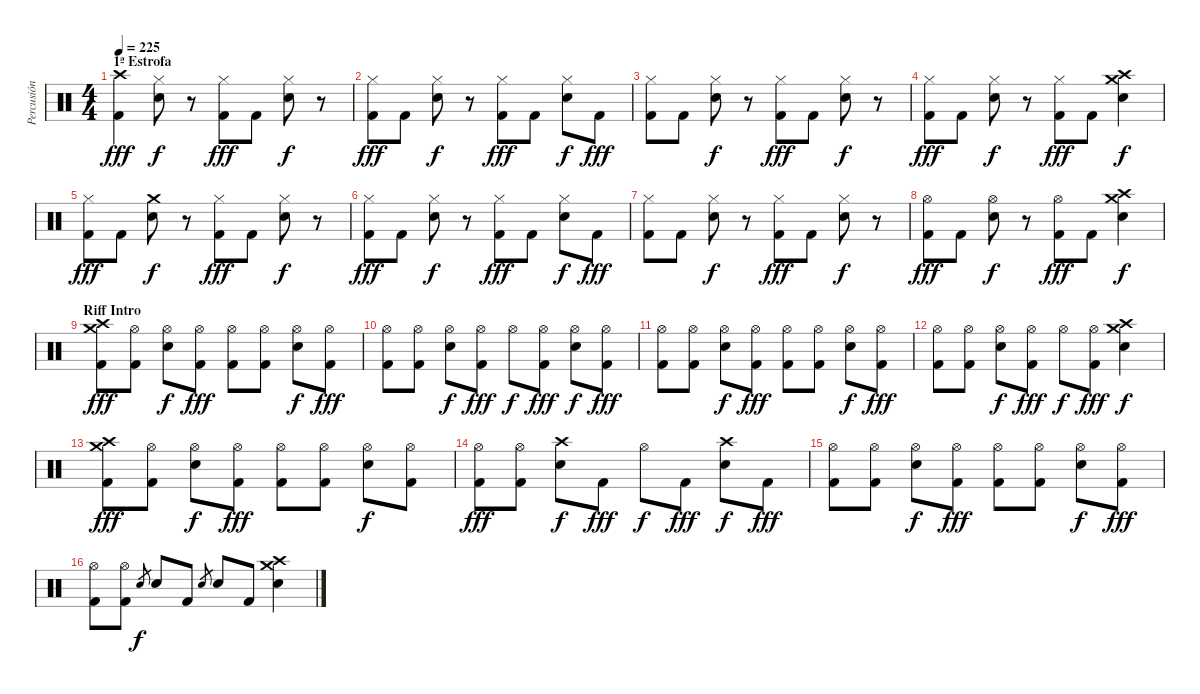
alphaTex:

\track ("Percusión" "Percusión") {instrument percussion}
\staff {score}
\articulation defaults
\ts (4 4)
\section ("" "1ª Estrofa")
\tempo 225
\clef neutral
\ks c
("Crash high (hit)" "Kick (hit) 2").4{dy fff} ("Electric Snare (hit)" "Hi-Hat (closed)").8{dy f} r.8 ("Kick (hit) 2" "Hi-Hat (closed)").8{dy fff} "Kick (hit) 2".8 ("Electric Snare (hit)" "Hi-Hat (closed)").8{dy f} r.8 |
("Kick (hit) 2" "Hi-Hat (closed)").8{dy fff} "Kick (hit) 2".8 ("Electric Snare (hit)" "Hi-Hat (closed)").8{dy f} r.8 ("Kick (hit) 2" "Hi-Hat (closed)").8{dy fff} "Kick (hit) 2".8 ("Electric Snare (hit)" "Hi-Hat (closed)").8{dy f} "Kick (hit) 2".8{dy fff} |
("Kick (hit) 2" "Hi-Hat (closed)").8 "Kick (hit) 2".8 ("Electric Snare (hit)" "Hi-Hat (closed)").8{dy f} r.8 ("Kick (hit) 2" "Hi-Hat (closed)").8{dy fff} "Kick (hit) 2".8 ("Electric Snare (hit)" "Hi-Hat (closed)").8{dy f} r.8 |
("Kick (hit) 2" "Hi-Hat (closed)").8{dy fff} "Kick (hit) 2".8 ("Electric Snare (hit)" "Hi-Hat (closed)").8{dy f} r.8 ("Kick (hit) 2" "Hi-Hat (closed)").8{dy fff} "Kick (hit) 2".8 ("Electric Snare (hit)" "Crash medium (hit)" "Crash high (hit)").4{dy f} |
("Kick (hit) 2" "Hi-Hat (closed)").8{dy fff} "Kick (hit) 2".8 ("Crash medium (hit)" "Electric Snare (hit)").8{dy f} r.8 ("Kick (hit) 2" "Hi-Hat (closed)").8{dy fff} "Kick (hit) 2".8 ("Electric Snare (hit)" "Hi-Hat (closed)").8{dy f} r.8 |
("Kick (hit) 2" "Hi-Hat (closed)").8{dy fff} "Kick (hit) 2".8 ("Electric Snare (hit)" "Hi-Hat (closed)").8{dy f} r.8 ("Kick (hit) 2" "Hi-Hat (closed)").8{dy fff} "Kick (hit) 2".8 ("Electric Snare (hit)" "Hi-Hat (closed)").8{dy f} "Kick (hit) 2".8{dy fff} |
("Kick (hit) 2" "Hi-Hat (closed)").8 "Kick (hit) 2".8 ("Electric Snare (hit)" "Hi-Hat (closed)").8{dy f} r.8 ("Kick (hit) 2" "Hi-Hat (closed)").8{dy fff} "Kick (hit) 2".8 ("Electric Snare (hit)" "Hi-Hat (closed)").8{dy f} r.8 |
("Kick (hit) 2" "Hi-Hat (open)").8{dy fff} "Kick (hit) 2".8 ("Electric Snare (hit)" "Hi-Hat (open)").8{dy f} r.8 ("Kick (hit) 2" "Hi-Hat (open)").8{dy fff} "Kick (hit) 2".8 ("Electric Snare (hit)" "Crash medium (hit)" "Crash high (hit)").4{dy f} |
\section ("" "Riff Intro")
("Kick (hit) 2" "Crash medium (hit)" "Crash high (hit)").8{dy fff} ("Kick (hit) 2" "Hi-Hat (open)").8 ("Electric Snare (hit)" "Hi-Hat (open)").8{dy f} ("Kick (hit) 2" "Hi-Hat (open)").8{dy fff} ("Kick (hit) 2" "Hi-Hat (open)").8 ("Kick (hit) 2" "Hi-Hat (open)").8 ("Electric Snare (hit)" "Hi-Hat (open)").8{dy f} ("Kick (hit) 2" "Hi-Hat (open)").8{dy fff} |
("Kick (hit) 2" "Hi-Hat (open)").8 ("Kick (hit) 2" "Hi-Hat (open)").8 ("Electric Snare (hit)" "Hi-Hat (open)").8{dy f} ("Kick (hit) 2" "Hi-Hat (open)").8{dy fff} "Hi-Hat (open)".8{dy f} ("Kick (hit) 2" "Hi-Hat (open)").8{dy fff} ("Electric Snare (hit)" "Hi-Hat (open)").8{dy f} ("Kick (hit) 2" "Hi-Hat (open)").8{dy fff} |
("Kick (hit) 2" "Hi-Hat (open)").8 ("Kick (hit) 2" "Hi-Hat (open)").8 ("Electric Snare (hit)" "Hi-Hat (open)").8{dy f} ("Kick (hit) 2" "Hi-Hat (open)").8{dy fff} ("Kick (hit) 2" "Hi-Hat (open)").8 ("Kick (hit) 2" "Hi-Hat (open)").8 ("Electric Snare (hit)" "Hi-Hat (open)").8{dy f} ("Kick (hit) 2" "Hi-Hat (open)").8{dy fff} |
("Kick (hit) 2" "Hi-Hat (open)").8 ("Kick (hit) 2" "Hi-Hat (open)").8 ("Electric Snare (hit)" "Hi-Hat (open)").8{dy f} ("Kick (hit) 2" "Hi-Hat (open)").8{dy fff} "Hi-Hat (open)".8{dy f} ("Kick (hit) 2" "Hi-Hat (open)").8{dy fff} ("Electric Snare (hit)" "Crash medium (hit)" "Crash high (hit)").4{dy f} |
("Kick (hit) 2" "Crash medium (hit)" "Crash high (hit)").8{dy fff} ("Kick (hit) 2" "Hi-Hat (open)").8 ("Electric Snare (hit)" "Hi-Hat (open)").8{dy f} ("Kick (hit) 2" "Hi-Hat (open)").8{dy fff} ("Kick (hit) 2" "Hi-Hat (open)").8 ("Kick (hit) 2" "Hi-Hat (open)").8 ("Electric Snare (hit)" "Hi-Hat (open)").8{dy f} ("Kick (hit) 2" "Hi-Hat (open)").8 |
("Kick (hit) 2" "Hi-Hat (open)").8{dy fff} ("Kick (hit) 2" "Hi-Hat (open)").8 ("Electric Snare (hit)" "Crash high (hit)").8{dy f} "Kick (hit) 2".8{dy fff} "Hi-Hat (open)".8{dy f} "Kick (hit) 2".8{dy fff} ("Electric Snare (hit)" "Crash high (hit)").8{dy f} "Kick (hit) 2".8{dy fff} |
("Kick (hit) 2" "Hi-Hat (open)").8 ("Kick (hit) 2" "Hi-Hat (open)").8 ("Electric Snare (hit)" "Hi-Hat (open)").8{dy f} ("Kick (hit) 2" "Hi-Hat (open)").8{dy fff} ("Kick (hit) 2" "Hi-Hat (open)").8 ("Kick (hit) 2" "Hi-Hat (open)").8 ("Electric Snare (hit)" "Hi-Hat (open)").8{dy f} ("Kick (hit) 2" "Hi-Hat (open)").8{dy fff} |
("Kick (hit) 2" "Hi-Hat (open)").8 ("Kick (hit) 2" "Hi-Hat (open)").8 "Electric Snare (hit)".8{gr dy f} "Electric Snare (hit)".8 "Kick (hit) 2".8 "Electric Snare (hit)".8{gr} "Electric Snare (hit)".8 "Kick (hit) 2".8 ("Electric Snare (hit)" "Crash high (hit)" "Crash medium (hit)").4
